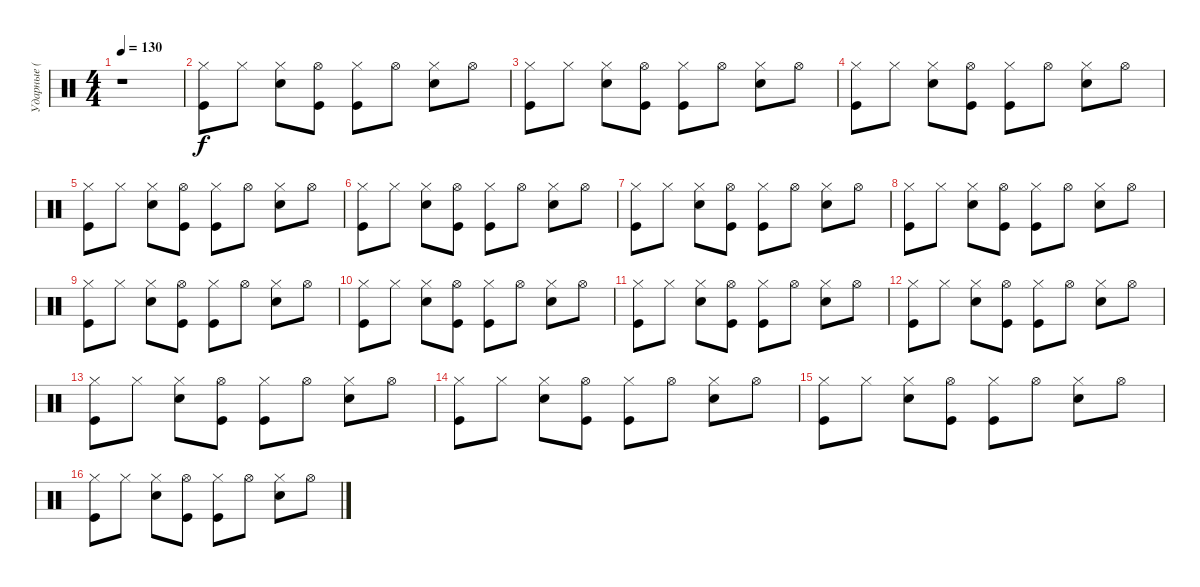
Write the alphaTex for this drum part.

\track (" Ударные (Котов)" " Ударные (") {instrument percussion}
\staff {score}
\articulation defaults
\ts (4 4)
\tempo 130
\clef neutral
\ks c
r.1{dy f} |
("Kick (hit)" "Hi-Hat (closed)").8 "Hi-Hat (closed)".8 ("Snare (hit) 2" "Hi-Hat (closed)").8 ("Kick (hit)" "Hi-Hat (open)").8 ("Kick (hit)" "Hi-Hat (closed)").8 "Hi-Hat (open)".8 ("Snare (hit) 2" "Hi-Hat (closed)").8 "Hi-Hat (open)".8 |
("Kick (hit)" "Hi-Hat (closed)").8 "Hi-Hat (closed)".8 ("Snare (hit) 2" "Hi-Hat (closed)").8 ("Kick (hit)" "Hi-Hat (open)").8 ("Kick (hit)" "Hi-Hat (closed)").8 "Hi-Hat (open)".8 ("Snare (hit) 2" "Hi-Hat (closed)").8 "Hi-Hat (open)".8 |
("Kick (hit)" "Hi-Hat (closed)").8 "Hi-Hat (closed)".8 ("Snare (hit) 2" "Hi-Hat (closed)").8 ("Kick (hit)" "Hi-Hat (open)").8 ("Kick (hit)" "Hi-Hat (closed)").8 "Hi-Hat (open)".8 ("Snare (hit) 2" "Hi-Hat (closed)").8 "Hi-Hat (open)".8 |
("Kick (hit)" "Hi-Hat (closed)").8 "Hi-Hat (closed)".8 ("Snare (hit) 2" "Hi-Hat (closed)").8 ("Kick (hit)" "Hi-Hat (open)").8 ("Kick (hit)" "Hi-Hat (closed)").8 "Hi-Hat (open)".8 ("Snare (hit) 2" "Hi-Hat (closed)").8 "Hi-Hat (open)".8 |
("Kick (hit)" "Hi-Hat (closed)").8 "Hi-Hat (closed)".8 ("Snare (hit) 2" "Hi-Hat (closed)").8 ("Kick (hit)" "Hi-Hat (open)").8 ("Kick (hit)" "Hi-Hat (closed)").8 "Hi-Hat (open)".8 ("Snare (hit) 2" "Hi-Hat (closed)").8 "Hi-Hat (open)".8 |
("Kick (hit)" "Hi-Hat (closed)").8 "Hi-Hat (closed)".8 ("Snare (hit) 2" "Hi-Hat (closed)").8 ("Kick (hit)" "Hi-Hat (open)").8 ("Kick (hit)" "Hi-Hat (closed)").8 "Hi-Hat (open)".8 ("Snare (hit) 2" "Hi-Hat (closed)").8 "Hi-Hat (open)".8 |
("Kick (hit)" "Hi-Hat (closed)").8 "Hi-Hat (closed)".8 ("Snare (hit) 2" "Hi-Hat (closed)").8 ("Kick (hit)" "Hi-Hat (open)").8 ("Kick (hit)" "Hi-Hat (closed)").8 "Hi-Hat (open)".8 ("Snare (hit) 2" "Hi-Hat (closed)").8 "Hi-Hat (open)".8 |
("Kick (hit)" "Hi-Hat (closed)").8 "Hi-Hat (closed)".8 ("Snare (hit) 2" "Hi-Hat (closed)").8 ("Kick (hit)" "Hi-Hat (open)").8 ("Kick (hit)" "Hi-Hat (closed)").8 "Hi-Hat (open)".8 ("Snare (hit) 2" "Hi-Hat (closed)").8 "Hi-Hat (open)".8 |
("Kick (hit)" "Hi-Hat (closed)").8 "Hi-Hat (closed)".8 ("Snare (hit) 2" "Hi-Hat (closed)").8 ("Kick (hit)" "Hi-Hat (open)").8 ("Kick (hit)" "Hi-Hat (closed)").8 "Hi-Hat (open)".8 ("Snare (hit) 2" "Hi-Hat (closed)").8 "Hi-Hat (open)".8 |
("Kick (hit)" "Hi-Hat (closed)").8 "Hi-Hat (closed)".8 ("Snare (hit) 2" "Hi-Hat (closed)").8 ("Kick (hit)" "Hi-Hat (open)").8 ("Kick (hit)" "Hi-Hat (closed)").8 "Hi-Hat (open)".8 ("Snare (hit) 2" "Hi-Hat (closed)").8 "Hi-Hat (open)".8 |
("Kick (hit)" "Hi-Hat (closed)").8 "Hi-Hat (closed)".8 ("Snare (hit) 2" "Hi-Hat (closed)").8 ("Kick (hit)" "Hi-Hat (open)").8 ("Kick (hit)" "Hi-Hat (closed)").8 "Hi-Hat (open)".8 ("Snare (hit) 2" "Hi-Hat (closed)").8 "Hi-Hat (open)".8 |
("Kick (hit)" "Hi-Hat (closed)").8 "Hi-Hat (closed)".8 ("Snare (hit) 2" "Hi-Hat (closed)").8 ("Kick (hit)" "Hi-Hat (open)").8 ("Kick (hit)" "Hi-Hat (closed)").8 "Hi-Hat (open)".8 ("Snare (hit) 2" "Hi-Hat (closed)").8 "Hi-Hat (open)".8 |
("Kick (hit)" "Hi-Hat (closed)").8 "Hi-Hat (closed)".8 ("Snare (hit) 2" "Hi-Hat (closed)").8 ("Kick (hit)" "Hi-Hat (open)").8 ("Kick (hit)" "Hi-Hat (closed)").8 "Hi-Hat (open)".8 ("Snare (hit) 2" "Hi-Hat (closed)").8 "Hi-Hat (open)".8 |
("Kick (hit)" "Hi-Hat (closed)").8 "Hi-Hat (closed)".8 ("Snare (hit) 2" "Hi-Hat (closed)").8 ("Kick (hit)" "Hi-Hat (open)").8 ("Kick (hit)" "Hi-Hat (closed)").8 "Hi-Hat (open)".8 ("Snare (hit) 2" "Hi-Hat (closed)").8 "Hi-Hat (open)".8 |
("Kick (hit)" "Hi-Hat (closed)").8 "Hi-Hat (closed)".8 ("Snare (hit) 2" "Hi-Hat (closed)").8 ("Kick (hit)" "Hi-Hat (open)").8 ("Kick (hit)" "Hi-Hat (closed)").8 "Hi-Hat (open)".8 ("Snare (hit) 2" "Hi-Hat (closed)").8 "Hi-Hat (open)".8
